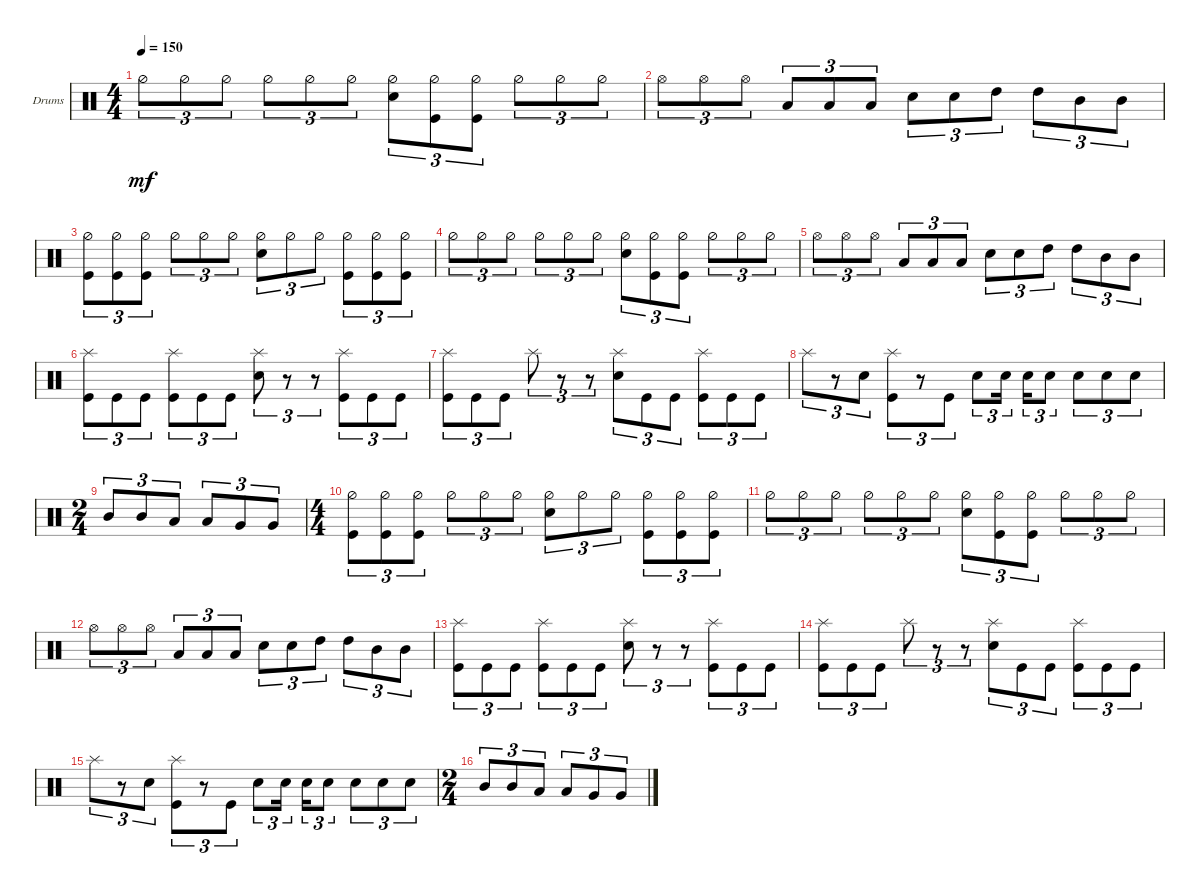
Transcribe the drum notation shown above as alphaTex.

\bracketExtendMode groupsimilarinstruments
\firstSystemTrackNameOrientation horizontal
\otherSystemsTrackNameOrientation horizontal
\track ("Drumkit" "Drums") {solo instrument percussion}
\staff {score}
\articulation defaults
\ts (4 4)
\tempo 150
\clef neutral
\ks c "Hi-Hat (half)".8{tu (3 2) dy mf} "Hi-Hat (half)".8{tu (3 2)} "Hi-Hat (half)".8{tu (3 2)} "Hi-Hat (half)".8{tu (3 2)} "Hi-Hat (half)".8{tu (3 2)} "Hi-Hat (half)".8{tu (3 2)}
("Snare (hit) 2" "Hi-Hat (half)").8{tu (3 2)} ("Kick (hit)" "Hi-Hat (half)").8{tu (3 2)} ("Kick (hit)" "Hi-Hat (half)").8{tu (3 2)} "Hi-Hat (half)".8{tu (3 2)} "Hi-Hat (half)".8{tu (3 2)} "Hi-Hat (half)".8{tu (3 2)} |
"Hi-Hat (open)".8{tu (3 2)} "Hi-Hat (open)".8{tu (3 2)} "Hi-Hat (open)".8{tu (3 2)} "Low Tom (hit)".8{tu (3 2)} "Low Tom (hit)".8{tu (3 2)} "Low Tom (hit)".8{tu (3 2)} "Snare (hit) 2".8{tu (3 2)} "Snare (hit) 2".8{tu (3 2)} "High Tom (hit)".8{tu (3 2)} "High Tom (hit)".8{tu (3 2)} "Mid Tom (hit)".8{tu (3 2)} "Mid Tom (hit)".8{tu (3 2)} |
("Kick (hit)" "Hi-Hat (half)").8{tu (3 2)} ("Kick (hit)" "Hi-Hat (half)").8{tu (3 2)} ("Kick (hit)" "Hi-Hat (half)").8{tu (3 2)} "Hi-Hat (half)".8{tu (3 2)} "Hi-Hat (half)".8{tu (3 2)} "Hi-Hat (half)".8{tu (3 2)} ("Snare (hit) 2" "Hi-Hat (half)").8{tu (3 2)} "Hi-Hat (half)".8{tu (3 2)} "Hi-Hat (half)".8{tu (3 2)} ("Kick (hit)" "Hi-Hat (half)").8{tu (3 2)} ("Kick (hit)" "Hi-Hat (half)").8{tu (3 2)} ("Kick (hit)" "Hi-Hat (half)").8{tu (3 2)} |
"Hi-Hat (half)".8{tu (3 2)} "Hi-Hat (half)".8{tu (3 2)} "Hi-Hat (half)".8{tu (3 2)} "Hi-Hat (half)".8{tu (3 2)} "Hi-Hat (half)".8{tu (3 2)} "Hi-Hat (half)".8{tu (3 2)} ("Snare (hit) 2" "Hi-Hat (half)").8{tu (3 2)} ("Kick (hit)" "Hi-Hat (half)").8{tu (3 2)} ("Kick (hit)" "Hi-Hat (half)").8{tu (3 2)} "Hi-Hat (half)".8{tu (3 2)} "Hi-Hat (half)".8{tu (3 2)} "Hi-Hat (half)".8{tu (3 2)} |
"Hi-Hat (open)".8{tu (3 2)} "Hi-Hat (open)".8{tu (3 2)} "Hi-Hat (open)".8{tu (3 2)} "Low Tom (hit)".8{tu (3 2)} "Low Tom (hit)".8{tu (3 2)} "Low Tom (hit)".8{tu (3 2)} "Snare (hit) 2".8{tu (3 2)} "Snare (hit) 2".8{tu (3 2)} "High Tom (hit)".8{tu (3 2)} "High Tom (hit)".8{tu (3 2)} "Mid Tom (hit)".8{tu (3 2)} "Mid Tom (hit)".8{tu (3 2)} |
("Kick (hit)" "Splash (hit)").8{tu (3 2)} "Kick (hit)".8{tu (3 2)} "Kick (hit)".8{tu (3 2)} ("Kick (hit)" "Splash (hit)").8{tu (3 2)} "Kick (hit)".8{tu (3 2)} "Kick (hit)".8{tu (3 2)} ("Snare (hit) 2" "Splash (hit)").8{tu (3 2)} r.8{tu (3 2)} r.8{tu (3 2)} ("Kick (hit)" "Splash (hit)").8{tu (3 2)} "Kick (hit)".8{tu (3 2)} "Kick (hit)".8{tu (3 2)} |
("Kick (hit)" "Splash (hit)").8{tu (3 2)} "Kick (hit)".8{tu (3 2)} "Kick (hit)".8{tu (3 2)} "Splash (hit)".8{tu (3 2)} r.8{tu (3 2)} r.8{tu (3 2)} ("Snare (hit) 2" "Splash (hit)").8{tu (3 2)} "Kick (hit)".8{tu (3 2)} "Kick (hit)".8{tu (3 2)} ("Kick (hit)" "Splash (hit)").8{tu (3 2)} "Kick (hit)".8{tu (3 2)} "Kick (hit)".8{tu (3 2)} |
"Splash (hit)".8{tu (3 2)} r.8{tu (3 2)} "Snare (hit) 2".8{tu (3 2)} ("Kick (hit)" "Splash (hit)").8{tu (3 2)} r.8{tu (3 2)} "Kick (hit)".8{tu (3 2)} "Snare (hit) 2".8{tu (3 2)} "Snare (hit) 2".16{tu (3 2)} "Snare (hit) 2".16{tu (3 2)} "Snare (hit) 2".8{tu (3 2)} "Snare (hit) 2".8{tu (3 2)} "Snare (hit) 2".8{tu (3 2)} "Snare (hit) 2".8{tu (3 2)} |
\ts (2 4)
"Mid Tom (hit)".8{tu (3 2)} "Mid Tom (hit)".8{tu (3 2)} "Low Tom (hit)".8{tu (3 2)} "Low Tom (hit)".8{tu (3 2)} "Very Low Tom (hit)".8{tu (3 2)} "Very Low Tom (hit)".8{tu (3 2)} |
\ts (4 4)
("Kick (hit)" "Hi-Hat (half)").8{tu (3 2)} ("Kick (hit)" "Hi-Hat (half)").8{tu (3 2)} ("Kick (hit)" "Hi-Hat (half)").8{tu (3 2)} "Hi-Hat (half)".8{tu (3 2)} "Hi-Hat (half)".8{tu (3 2)} "Hi-Hat (half)".8{tu (3 2)} ("Snare (hit) 2" "Hi-Hat (half)").8{tu (3 2)} "Hi-Hat (half)".8{tu (3 2)} "Hi-Hat (half)".8{tu (3 2)} ("Kick (hit)" "Hi-Hat (half)").8{tu (3 2)} ("Kick (hit)" "Hi-Hat (half)").8{tu (3 2)} ("Kick (hit)" "Hi-Hat (half)").8{tu (3 2)} |
"Hi-Hat (half)".8{tu (3 2)} "Hi-Hat (half)".8{tu (3 2)} "Hi-Hat (half)".8{tu (3 2)} "Hi-Hat (half)".8{tu (3 2)} "Hi-Hat (half)".8{tu (3 2)} "Hi-Hat (half)".8{tu (3 2)} ("Snare (hit) 2" "Hi-Hat (half)").8{tu (3 2)} ("Kick (hit)" "Hi-Hat (half)").8{tu (3 2)} ("Kick (hit)" "Hi-Hat (half)").8{tu (3 2)} "Hi-Hat (half)".8{tu (3 2)} "Hi-Hat (half)".8{tu (3 2)} "Hi-Hat (half)".8{tu (3 2)} |
"Hi-Hat (open)".8{tu (3 2)} "Hi-Hat (open)".8{tu (3 2)} "Hi-Hat (open)".8{tu (3 2)} "Low Tom (hit)".8{tu (3 2)} "Low Tom (hit)".8{tu (3 2)} "Low Tom (hit)".8{tu (3 2)} "Snare (hit) 2".8{tu (3 2)} "Snare (hit) 2".8{tu (3 2)} "High Tom (hit)".8{tu (3 2)} "High Tom (hit)".8{tu (3 2)} "Mid Tom (hit)".8{tu (3 2)} "Mid Tom (hit)".8{tu (3 2)} |
("Kick (hit)" "Splash (hit)").8{tu (3 2)} "Kick (hit)".8{tu (3 2)} "Kick (hit)".8{tu (3 2)} ("Kick (hit)" "Splash (hit)").8{tu (3 2)} "Kick (hit)".8{tu (3 2)} "Kick (hit)".8{tu (3 2)} ("Snare (hit) 2" "Splash (hit)").8{tu (3 2)} r.8{tu (3 2)} r.8{tu (3 2)} ("Kick (hit)" "Splash (hit)").8{tu (3 2)} "Kick (hit)".8{tu (3 2)} "Kick (hit)".8{tu (3 2)} |
("Kick (hit)" "Splash (hit)").8{tu (3 2)} "Kick (hit)".8{tu (3 2)} "Kick (hit)".8{tu (3 2)} "Splash (hit)".8{tu (3 2)} r.8{tu (3 2)} r.8{tu (3 2)} ("Snare (hit) 2" "Splash (hit)").8{tu (3 2)} "Kick (hit)".8{tu (3 2)} "Kick (hit)".8{tu (3 2)} ("Kick (hit)" "Splash (hit)").8{tu (3 2)} "Kick (hit)".8{tu (3 2)} "Kick (hit)".8{tu (3 2)} |
"Splash (hit)".8{tu (3 2)} r.8{tu (3 2)} "Snare (hit) 2".8{tu (3 2)} ("Kick (hit)" "Splash (hit)").8{tu (3 2)} r.8{tu (3 2)} "Kick (hit)".8{tu (3 2)} "Snare (hit) 2".8{tu (3 2)} "Snare (hit) 2".16{tu (3 2)} "Snare (hit) 2".16{tu (3 2)} "Snare (hit) 2".8{tu (3 2)} "Snare (hit) 2".8{tu (3 2)} "Snare (hit) 2".8{tu (3 2)} "Snare (hit) 2".8{tu (3 2)} |
\ts (2 4)
"Mid Tom (hit)".8{tu (3 2)} "Mid Tom (hit)".8{tu (3 2)} "Low Tom (hit)".8{tu (3 2)} "Low Tom (hit)".8{tu (3 2)} "Very Low Tom (hit)".8{tu (3 2)} "Very Low Tom (hit)".8{tu (3 2)}
